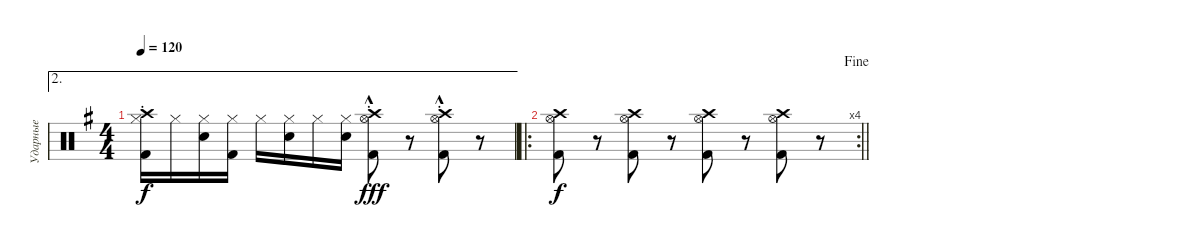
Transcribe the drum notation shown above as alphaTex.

\track ("Ударные" "Ударные") {instrument percussion}
\staff {score}
\articulation defaults
\ae 2
\ts (4 4)
\tempo 120
\clef neutral
\ks eminor
("Hi-Hat (closed)" "Crash high (hit)" "Kick (hit) 2"{st}).16{dy f} "Hi-Hat (closed)".16 ("Hi-Hat (closed)" "Snare (hit) 2").16 ("Hi-Hat (closed)" "Kick (hit) 2").16 "Hi-Hat (closed)".16 ("Hi-Hat (closed)" "Snare (hit) 2").16 "Hi-Hat (closed)".16 ("Hi-Hat (closed)" "Snare (hit) 2").16 ("Crash high (hit)" "Hi-Hat (open)" "Kick (hit) 2"{hac st}).8{dy fff} r.8 ("Crash high (hit)" "Hi-Hat (open)" "Kick (hit) 2"{hac st}).8 r.8 |
\ro
\rc 4
\jump fine
\barLineRight lightlight
("Crash high (hit)" "Hi-Hat (open)" "Kick (hit) 2").8{dy f} r.8 ("Crash high (hit)" "Hi-Hat (open)" "Kick (hit) 2").8 r.8 ("Crash high (hit)" "Hi-Hat (open)" "Kick (hit) 2").8 r.8 ("Crash high (hit)" "Hi-Hat (open)" "Kick (hit) 2").8 r.8
